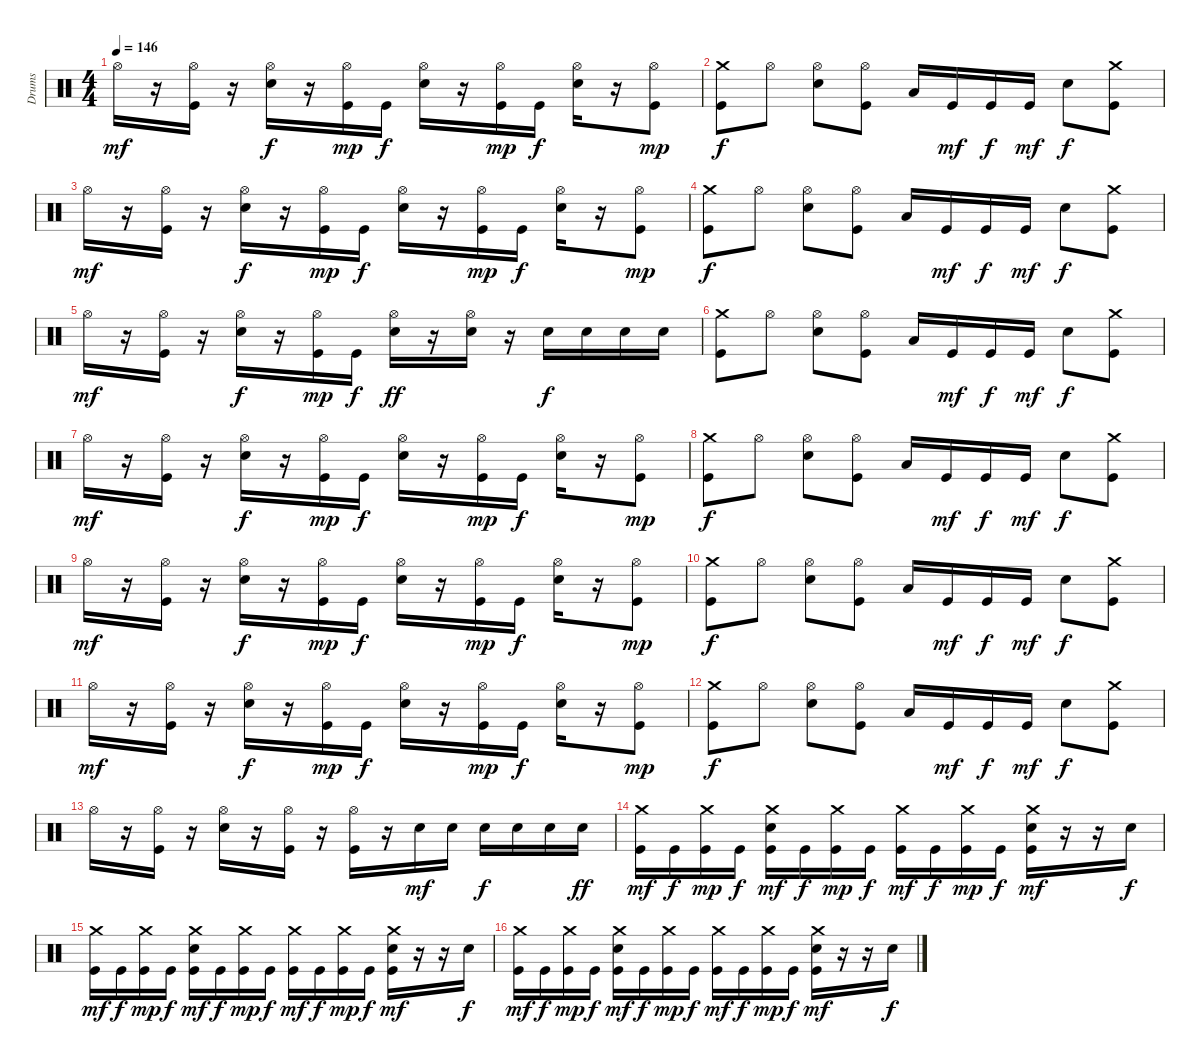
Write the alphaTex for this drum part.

\track ("Drums" "Drums") {instrument percussion}
\staff {score}
\articulation defaults
\ts (4 4)
\tempo 146
\clef neutral
\ks c "Hi-Hat (open)".16{dy mf}
r.16 ("Hi-Hat (open)" "Kick (hit)").16 r.16 ("Hi-Hat (open)" "Snare (hit) 2").16{dy f} r.16 ("Hi-Hat (open)" "Kick (hit)").16{dy mp} "Kick (hit)".16{dy f} ("Hi-Hat (open)" "Snare (hit) 2").16 r.16 ("Hi-Hat (open)" "Kick (hit)").16{dy mp} "Kick (hit)".16{dy f} ("Hi-Hat (open)" "Snare (hit) 2").16 r.16 ("Hi-Hat (open)" "Kick (hit)").8{dy mp} |
("Crash medium (hit)" "Kick (hit)").8{dy f} "Hi-Hat (open)".8 ("Hi-Hat (open)" "Snare (hit) 2").8 ("Hi-Hat (open)" "Kick (hit)").8 "Low Floor Tom (hit)".16 "Kick (hit)".16{dy mf} "Kick (hit)".16{dy f} "Kick (hit)".16{dy mf} "Snare (hit) 2".8{dy f} ("Crash medium (hit)" "Kick (hit)").8 |
"Hi-Hat (open)".16{dy mf} r.16 ("Hi-Hat (open)" "Kick (hit)").16 r.16 ("Hi-Hat (open)" "Snare (hit) 2").16{dy f} r.16 ("Hi-Hat (open)" "Kick (hit)").16{dy mp} "Kick (hit)".16{dy f} ("Hi-Hat (open)" "Snare (hit) 2").16 r.16 ("Hi-Hat (open)" "Kick (hit)").16{dy mp} "Kick (hit)".16{dy f} ("Hi-Hat (open)" "Snare (hit) 2").16 r.16 ("Hi-Hat (open)" "Kick (hit)").8{dy mp} |
("Crash medium (hit)" "Kick (hit)").8{dy f} "Hi-Hat (open)".8 ("Hi-Hat (open)" "Snare (hit) 2").8 ("Hi-Hat (open)" "Kick (hit)").8 "Low Floor Tom (hit)".16 "Kick (hit)".16{dy mf} "Kick (hit)".16{dy f} "Kick (hit)".16{dy mf} "Snare (hit) 2".8{dy f} ("Crash medium (hit)" "Kick (hit)").8 |
"Hi-Hat (open)".16{dy mf} r.16 ("Hi-Hat (open)" "Kick (hit)").16 r.16 ("Hi-Hat (open)" "Snare (hit) 2").16{dy f} r.16 ("Hi-Hat (open)" "Kick (hit)").16{dy mp} "Kick (hit)".16{dy f} ("Hi-Hat (open)" "Snare (hit) 2").16{dy ff} r.16 ("Hi-Hat (open)" "Snare (hit) 2").16 r.16 "Snare (hit) 2".16{dy f} "Snare (hit) 2".16 "Snare (hit) 2".16 "Snare (hit) 2".16 |
("Crash medium (hit)" "Kick (hit)").8 "Hi-Hat (open)".8 ("Hi-Hat (open)" "Snare (hit) 2").8 ("Hi-Hat (open)" "Kick (hit)").8 "Low Floor Tom (hit)".16 "Kick (hit)".16{dy mf} "Kick (hit)".16{dy f} "Kick (hit)".16{dy mf} "Snare (hit) 2".8{dy f} ("Crash medium (hit)" "Kick (hit)").8 |
"Hi-Hat (open)".16{dy mf} r.16 ("Hi-Hat (open)" "Kick (hit)").16 r.16 ("Hi-Hat (open)" "Snare (hit) 2").16{dy f} r.16 ("Hi-Hat (open)" "Kick (hit)").16{dy mp} "Kick (hit)".16{dy f} ("Hi-Hat (open)" "Snare (hit) 2").16 r.16 ("Hi-Hat (open)" "Kick (hit)").16{dy mp} "Kick (hit)".16{dy f} ("Hi-Hat (open)" "Snare (hit) 2").16 r.16 ("Hi-Hat (open)" "Kick (hit)").8{dy mp} |
("Crash medium (hit)" "Kick (hit)").8{dy f} "Hi-Hat (open)".8 ("Hi-Hat (open)" "Snare (hit) 2").8 ("Hi-Hat (open)" "Kick (hit)").8 "Low Floor Tom (hit)".16 "Kick (hit)".16{dy mf} "Kick (hit)".16{dy f} "Kick (hit)".16{dy mf} "Snare (hit) 2".8{dy f} ("Crash medium (hit)" "Kick (hit)").8 |
"Hi-Hat (open)".16{dy mf} r.16 ("Hi-Hat (open)" "Kick (hit)").16 r.16 ("Hi-Hat (open)" "Snare (hit) 2").16{dy f} r.16 ("Hi-Hat (open)" "Kick (hit)").16{dy mp} "Kick (hit)".16{dy f} ("Hi-Hat (open)" "Snare (hit) 2").16 r.16 ("Hi-Hat (open)" "Kick (hit)").16{dy mp} "Kick (hit)".16{dy f} ("Hi-Hat (open)" "Snare (hit) 2").16 r.16 ("Hi-Hat (open)" "Kick (hit)").8{dy mp} |
("Crash medium (hit)" "Kick (hit)").8{dy f} "Hi-Hat (open)".8 ("Hi-Hat (open)" "Snare (hit) 2").8 ("Hi-Hat (open)" "Kick (hit)").8 "Low Floor Tom (hit)".16 "Kick (hit)".16{dy mf} "Kick (hit)".16{dy f} "Kick (hit)".16{dy mf} "Snare (hit) 2".8{dy f} ("Crash medium (hit)" "Kick (hit)").8 |
"Hi-Hat (open)".16{dy mf} r.16 ("Hi-Hat (open)" "Kick (hit)").16 r.16 ("Hi-Hat (open)" "Snare (hit) 2").16{dy f} r.16 ("Hi-Hat (open)" "Kick (hit)").16{dy mp} "Kick (hit)".16{dy f} ("Hi-Hat (open)" "Snare (hit) 2").16 r.16 ("Hi-Hat (open)" "Kick (hit)").16{dy mp} "Kick (hit)".16{dy f} ("Hi-Hat (open)" "Snare (hit) 2").16 r.16 ("Hi-Hat (open)" "Kick (hit)").8{dy mp} |
("Crash medium (hit)" "Kick (hit)").8{dy f} "Hi-Hat (open)".8 ("Hi-Hat (open)" "Snare (hit) 2").8 ("Hi-Hat (open)" "Kick (hit)").8 "Low Floor Tom (hit)".16 "Kick (hit)".16{dy mf} "Kick (hit)".16{dy f} "Kick (hit)".16{dy mf} "Snare (hit) 2".8{dy f} ("Crash medium (hit)" "Kick (hit)").8 |
"Hi-Hat (open)".16 r.16 ("Hi-Hat (open)" "Kick (hit)").16 r.16 ("Hi-Hat (open)" "Snare (hit) 2").16 r.16 ("Hi-Hat (open)" "Kick (hit)").16 r.16 ("Hi-Hat (open)" "Kick (hit)").16 r.16 "Snare (hit) 2".16{dy mf} "Snare (hit) 2".16 "Snare (hit) 2".16{dy f} "Snare (hit) 2".16 "Snare (hit) 2".16 "Snare (hit) 2".16{dy ff} |
("Crash medium (hit)" "Kick (hit)").16{dy mf} "Kick (hit)".16{dy f} ("Crash medium (hit)" "Kick (hit)").16{dy mp} "Kick (hit)".16{dy f} ("Crash medium (hit)" "Snare (hit) 2" "Kick (hit)").16{dy mf} "Kick (hit)".16{dy f} ("Crash medium (hit)" "Kick (hit)").16{dy mp} "Kick (hit)".16{dy f} ("Crash medium (hit)" "Kick (hit)").16{dy mf} "Kick (hit)".16{dy f} ("Crash medium (hit)" "Kick (hit)").16{dy mp} "Kick (hit)".16{dy f} ("Crash medium (hit)" "Snare (hit) 2" "Kick (hit)").16{dy mf} r.16 r.16 "Snare (hit) 2".16{dy f} |
("Crash medium (hit)" "Kick (hit)").16{dy mf} "Kick (hit)".16{dy f} ("Crash medium (hit)" "Kick (hit)").16{dy mp} "Kick (hit)".16{dy f} ("Crash medium (hit)" "Snare (hit) 2" "Kick (hit)").16{dy mf} "Kick (hit)".16{dy f} ("Crash medium (hit)" "Kick (hit)").16{dy mp} "Kick (hit)".16{dy f} ("Crash medium (hit)" "Kick (hit)").16{dy mf} "Kick (hit)".16{dy f} ("Crash medium (hit)" "Kick (hit)").16{dy mp} "Kick (hit)".16{dy f} ("Crash medium (hit)" "Snare (hit) 2" "Kick (hit)").16{dy mf} r.16 r.16 "Snare (hit) 2".16{dy f} |
("Crash medium (hit)" "Kick (hit)").16{dy mf} "Kick (hit)".16{dy f} ("Crash medium (hit)" "Kick (hit)").16{dy mp} "Kick (hit)".16{dy f} ("Crash medium (hit)" "Snare (hit) 2" "Kick (hit)").16{dy mf} "Kick (hit)".16{dy f} ("Crash medium (hit)" "Kick (hit)").16{dy mp} "Kick (hit)".16{dy f} ("Crash medium (hit)" "Kick (hit)").16{dy mf} "Kick (hit)".16{dy f} ("Crash medium (hit)" "Kick (hit)").16{dy mp} "Kick (hit)".16{dy f} ("Crash medium (hit)" "Snare (hit) 2" "Kick (hit)").16{dy mf} r.16 r.16 "Snare (hit) 2".16{dy f}
